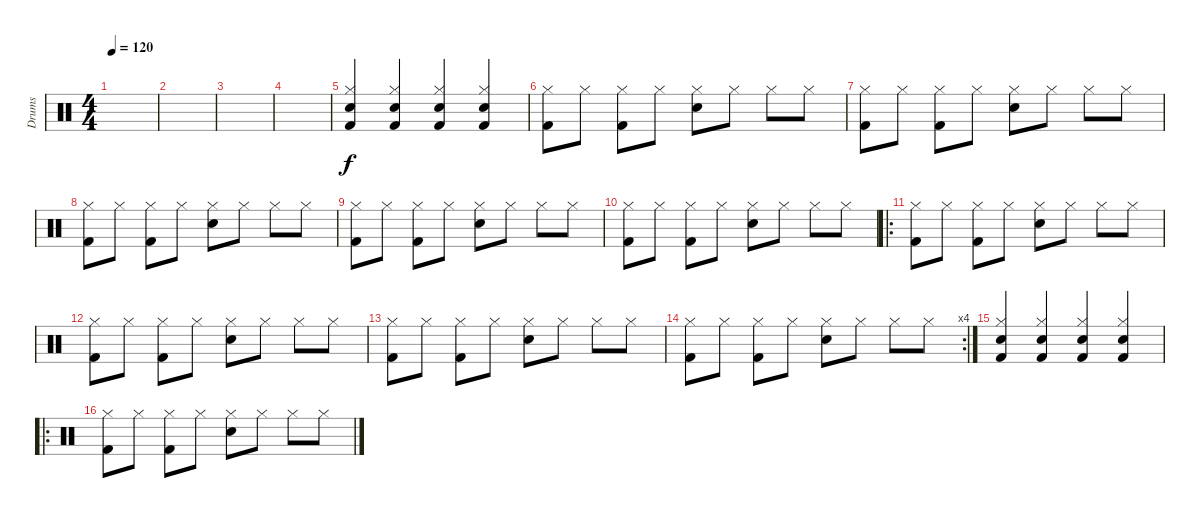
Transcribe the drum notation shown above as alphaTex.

\track ("Drums" "Drums") {instrument percussion}
\staff {score}
\articulation defaults
\ts (4 4)
\tempo 120
\clef neutral
\ks c
|
|
|
|
("Kick (hit) 2" "Hi-Hat (closed)" "Snare (hit) 2").4 ("Kick (hit) 2" "Hi-Hat (closed)" "Snare (hit) 2").4 ("Kick (hit) 2" "Hi-Hat (closed)" "Snare (hit) 2").4 ("Kick (hit) 2" "Hi-Hat (closed)" "Snare (hit) 2").4 |
("Kick (hit) 2" "Hi-Hat (closed)").8 "Hi-Hat (closed)".8 ("Kick (hit) 2" "Hi-Hat (closed)").8 "Hi-Hat (closed)".8 ("Snare (hit) 2" "Hi-Hat (closed)").8 "Hi-Hat (closed)".8 "Hi-Hat (closed)".8 "Hi-Hat (closed)".8 |
("Kick (hit) 2" "Hi-Hat (closed)").8 "Hi-Hat (closed)".8 ("Kick (hit) 2" "Hi-Hat (closed)").8 "Hi-Hat (closed)".8 ("Snare (hit) 2" "Hi-Hat (closed)").8 "Hi-Hat (closed)".8 "Hi-Hat (closed)".8 "Hi-Hat (closed)".8 |
("Kick (hit) 2" "Hi-Hat (closed)").8 "Hi-Hat (closed)".8 ("Kick (hit) 2" "Hi-Hat (closed)").8 "Hi-Hat (closed)".8 ("Snare (hit) 2" "Hi-Hat (closed)").8 "Hi-Hat (closed)".8 "Hi-Hat (closed)".8 "Hi-Hat (closed)".8 |
("Kick (hit) 2" "Hi-Hat (closed)").8 "Hi-Hat (closed)".8 ("Kick (hit) 2" "Hi-Hat (closed)").8 "Hi-Hat (closed)".8 ("Snare (hit) 2" "Hi-Hat (closed)").8 "Hi-Hat (closed)".8 "Hi-Hat (closed)".8 "Hi-Hat (closed)".8 |
("Kick (hit) 2" "Hi-Hat (closed)").8 "Hi-Hat (closed)".8 ("Kick (hit) 2" "Hi-Hat (closed)").8 "Hi-Hat (closed)".8 ("Snare (hit) 2" "Hi-Hat (closed)").8 "Hi-Hat (closed)".8 "Hi-Hat (closed)".8 "Hi-Hat (closed)".8 |
\ro
("Kick (hit) 2" "Hi-Hat (closed)").8 "Hi-Hat (closed)".8 ("Kick (hit) 2" "Hi-Hat (closed)").8 "Hi-Hat (closed)".8 ("Snare (hit) 2" "Hi-Hat (closed)").8 "Hi-Hat (closed)".8 "Hi-Hat (closed)".8 "Hi-Hat (closed)".8 |
("Kick (hit) 2" "Hi-Hat (closed)").8 "Hi-Hat (closed)".8 ("Kick (hit) 2" "Hi-Hat (closed)").8 "Hi-Hat (closed)".8 ("Snare (hit) 2" "Hi-Hat (closed)").8 "Hi-Hat (closed)".8 "Hi-Hat (closed)".8 "Hi-Hat (closed)".8 |
("Kick (hit) 2" "Hi-Hat (closed)").8 "Hi-Hat (closed)".8 ("Kick (hit) 2" "Hi-Hat (closed)").8 "Hi-Hat (closed)".8 ("Snare (hit) 2" "Hi-Hat (closed)").8 "Hi-Hat (closed)".8 "Hi-Hat (closed)".8 "Hi-Hat (closed)".8 |
\rc 4
("Kick (hit) 2" "Hi-Hat (closed)").8 "Hi-Hat (closed)".8 ("Kick (hit) 2" "Hi-Hat (closed)").8 "Hi-Hat (closed)".8 ("Snare (hit) 2" "Hi-Hat (closed)").8 "Hi-Hat (closed)".8 "Hi-Hat (closed)".8 "Hi-Hat (closed)".8 |
("Kick (hit) 2" "Hi-Hat (closed)" "Snare (hit) 2").4 ("Kick (hit) 2" "Hi-Hat (closed)" "Snare (hit) 2").4 ("Kick (hit) 2" "Hi-Hat (closed)" "Snare (hit) 2").4 ("Kick (hit) 2" "Hi-Hat (closed)" "Snare (hit) 2").4 |
\ro
("Kick (hit) 2" "Hi-Hat (closed)").8 "Hi-Hat (closed)".8 ("Kick (hit) 2" "Hi-Hat (closed)").8 "Hi-Hat (closed)".8 ("Snare (hit) 2" "Hi-Hat (closed)").8 "Hi-Hat (closed)".8 "Hi-Hat (closed)".8 "Hi-Hat (closed)".8
